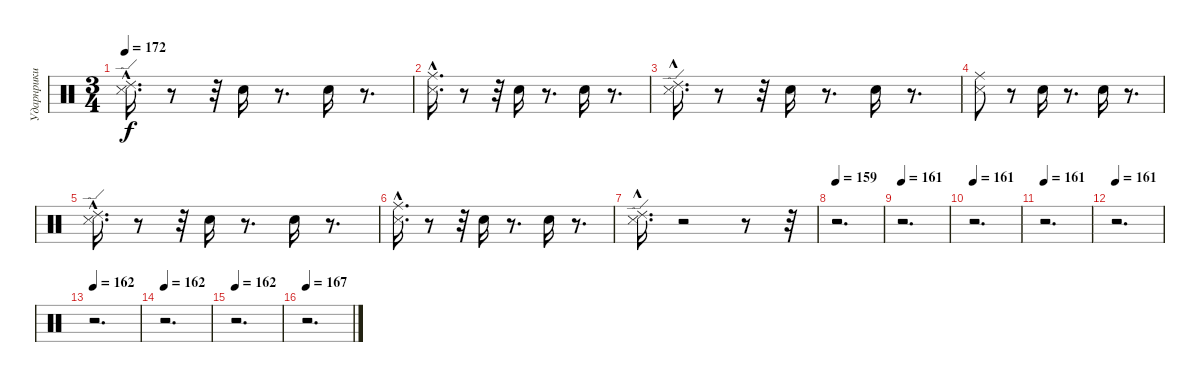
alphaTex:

\track ("Ударнрики" "Ударнрики") {instrument percussion}
\staff {score}
\articulation defaults
\ts (3 4)
\tempo 172
\clef neutral
\ks c
("Ride (edge) 2"{hac} "Metronome (hit)"{hac}).16{d dy f} r.8 r.32 "Electric Snare (hit)".16 r.8{d} "Electric Snare (hit)".16 r.8{d} |
("Ride (middle)" "Metronome (hit)"{hac}).16{d} r.8 r.32 "Electric Snare (hit)".16 r.8{d} "Electric Snare (hit)".16 r.8{d} |
("Ride (edge) 2" "Metronome (hit)"{hac}).16{d} r.8 r.32 "Electric Snare (hit)".16 r.8{d} "Electric Snare (hit)".16 r.8{d} |
("Ride (middle)" "Metronome (hit)").8 r.8 "Electric Snare (hit)".16 r.8{d} "Electric Snare (hit)".16 r.8{d} |
("Ride (edge) 2"{hac} "Metronome (hit)"{hac}).16{d} r.8 r.32 "Electric Snare (hit)".16 r.8{d} "Electric Snare (hit)".16 r.8{d} |
("Ride (middle)" "Metronome (hit)"{hac}).16{d} r.8 r.32 "Electric Snare (hit)".16 r.8{d} "Electric Snare (hit)".16 r.8{d} |
("Ride (edge) 2" "Metronome (hit)"{hac}).16{d} r.2 r.8 r.32 |
\tempo 159
r.2{d} |
\tempo 161
r.2{d} |
\tempo 161
r.2{d} |
\tempo 161
r.2{d} |
\tempo 161
r.2{d} |
\tempo 162
r.2{d} |
\tempo 162
r.2{d} |
\tempo 162
r.2{d} |
\tempo 167
r.2{d}
